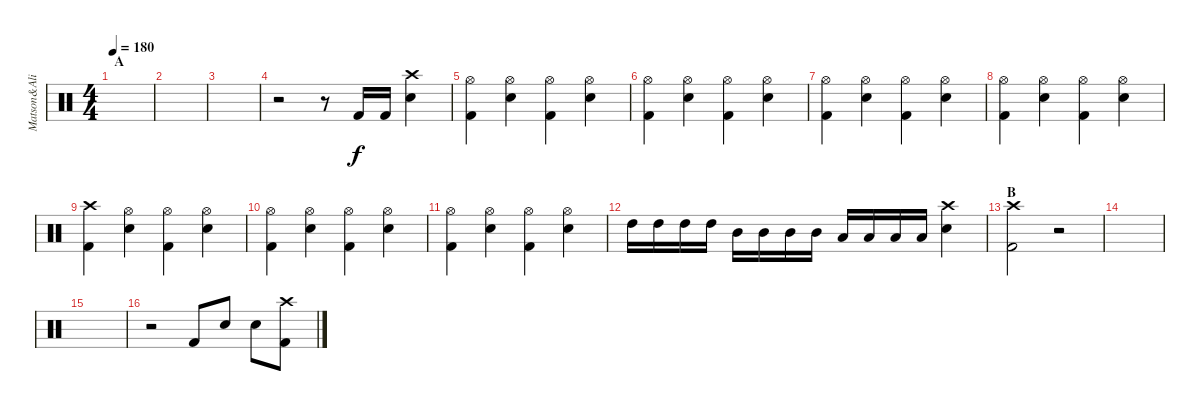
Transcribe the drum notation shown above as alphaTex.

\track ("Matson&Ali" "Matson&Ali") {instrument percussion}
\staff {score}
\articulation defaults
\ts (4 4)
\section ("" "A")
\tempo 180
\clef neutral
\ks c
|
|
|
r.2 r.8 "Kick (hit) 2".16 "Kick (hit) 2".16 ("Crash high (hit)" "Snare (hit) 2").4 |
("Hi-Hat (open)" "Kick (hit) 2").4 ("Hi-Hat (open)" "Snare (hit) 2").4 ("Hi-Hat (open)" "Kick (hit) 2").4 ("Hi-Hat (open)" "Snare (hit) 2").4 |
("Hi-Hat (open)" "Kick (hit) 2").4 ("Hi-Hat (open)" "Snare (hit) 2").4 ("Hi-Hat (open)" "Kick (hit) 2").4 ("Hi-Hat (open)" "Snare (hit) 2").4 |
("Hi-Hat (open)" "Kick (hit) 2").4 ("Hi-Hat (open)" "Snare (hit) 2").4 ("Hi-Hat (open)" "Kick (hit) 2").4 ("Hi-Hat (open)" "Snare (hit) 2").4 |
("Hi-Hat (open)" "Kick (hit) 2").4 ("Hi-Hat (open)" "Snare (hit) 2").4 ("Hi-Hat (open)" "Kick (hit) 2").4 ("Hi-Hat (open)" "Snare (hit) 2").4 |
("Crash high (hit)" "Kick (hit) 2").4 ("Hi-Hat (open)" "Snare (hit) 2").4 ("Hi-Hat (open)" "Kick (hit) 2").4 ("Hi-Hat (open)" "Snare (hit) 2").4 |
("Hi-Hat (open)" "Kick (hit) 2").4 ("Hi-Hat (open)" "Snare (hit) 2").4 ("Hi-Hat (open)" "Kick (hit) 2").4 ("Hi-Hat (open)" "Snare (hit) 2").4 |
("Hi-Hat (open)" "Kick (hit) 2").4 ("Hi-Hat (open)" "Snare (hit) 2").4 ("Hi-Hat (open)" "Kick (hit) 2").4 ("Hi-Hat (open)" "Snare (hit) 2").4 |
"High Tom (hit)".16 "High Tom (hit)".16 "High Tom (hit)".16 "High Tom (hit)".16 "Mid Tom (hit)".16 "Mid Tom (hit)".16 "Mid Tom (hit)".16 "Mid Tom (hit)".16 "Low Tom (hit)".16 "Low Tom (hit)".16 "Low Tom (hit)".16 "Low Tom (hit)".16 ("Crash high (hit)" "Snare (hit) 2").4 |
\section ("" "B")
("Crash high (hit)" "Kick (hit) 2").2 r.2 |
|
|
r.2 "Kick (hit) 2".8 "Snare (hit) 2".8 "Snare (hit) 2".8 ("Crash high (hit)" "Kick (hit) 2").8
